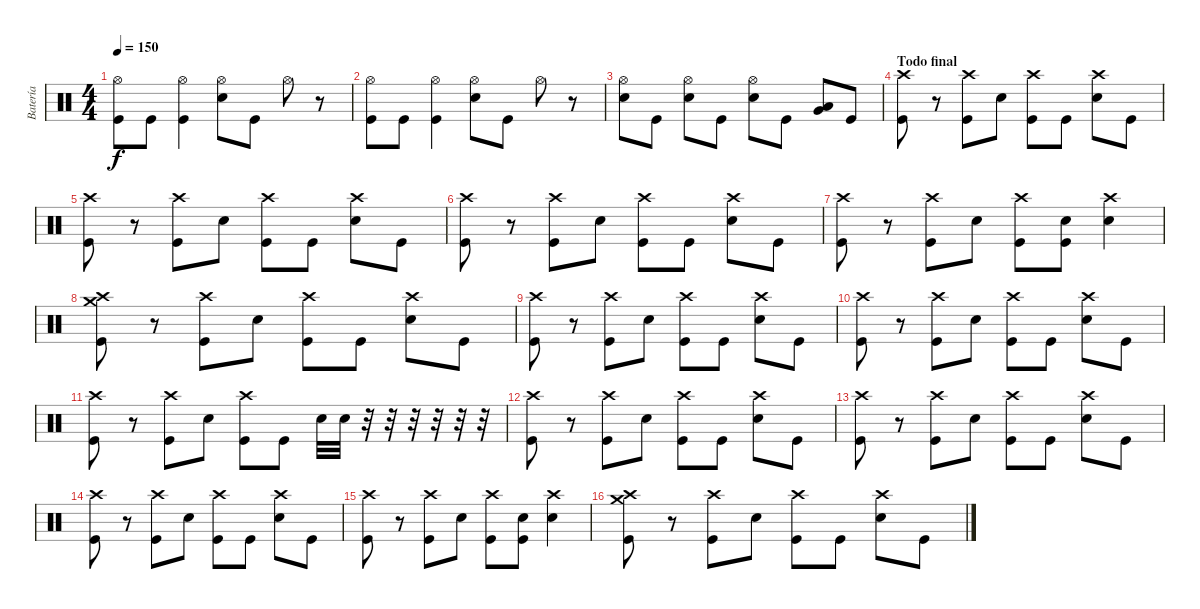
\track ("Batería" "Batería") {instrument percussion}
\staff {score}
\articulation defaults
\ts (4 4)
\tempo 150
\clef neutral
\ks c
("Hi-Hat (open)" "Kick (hit)").8{dy f} "Kick (hit)".8 ("Hi-Hat (open)" "Kick (hit)").4 ("Hi-Hat (open)" "Snare (hit) 2").8 "Kick (hit)".8 "Hi-Hat (open)".8 r.8 |
("Hi-Hat (open)" "Kick (hit)").8 "Kick (hit)".8 ("Hi-Hat (open)" "Kick (hit)").4 ("Hi-Hat (open)" "Snare (hit) 2").8 "Kick (hit)".8 "Hi-Hat (open)".8 r.8 |
("Hi-Hat (open)" "Snare (hit) 2").8 "Kick (hit)".8 ("Hi-Hat (open)" "Snare (hit) 2").8 "Kick (hit)".8 ("Hi-Hat (open)" "Snare (hit) 2").8 "Kick (hit)".8 ("Very Low Tom (hit)" "Low Tom (hit)").8 "Kick (hit)".8 |
\section ("" "Todo final")
("Crash high (hit)" "Kick (hit)").8 r.8 ("Crash high (hit)" "Kick (hit)").8 "Snare (hit) 2".8 ("Crash high (hit)" "Kick (hit)").8 "Kick (hit)".8 ("Crash high (hit)" "Snare (hit) 2").8 "Kick (hit)".8 |
("Crash high (hit)" "Kick (hit)").8 r.8 ("Crash high (hit)" "Kick (hit)").8 "Snare (hit) 2".8 ("Crash high (hit)" "Kick (hit)").8 "Kick (hit)".8 ("Crash high (hit)" "Snare (hit) 2").8 "Kick (hit)".8 |
("Crash high (hit)" "Kick (hit)").8 r.8 ("Crash high (hit)" "Kick (hit)").8 "Snare (hit) 2".8 ("Crash high (hit)" "Kick (hit)").8 "Kick (hit)".8 ("Crash high (hit)" "Snare (hit) 2").8 "Kick (hit)".8 |
("Crash high (hit)" "Kick (hit)").8 r.8 ("Crash high (hit)" "Kick (hit)").8 "Snare (hit) 2".8 ("Crash high (hit)" "Kick (hit)").8 ("Snare (hit) 2" "Kick (hit)").8 ("Crash high (hit)" "Snare (hit) 2").4 |
("Crash high (hit)" "Crash medium (hit)" "Kick (hit)").8 r.8 ("Crash high (hit)" "Kick (hit)").8 "Snare (hit) 2".8 ("Crash high (hit)" "Kick (hit)").8 "Kick (hit)".8 ("Crash high (hit)" "Snare (hit) 2").8 "Kick (hit)".8 |
("Crash high (hit)" "Kick (hit)").8 r.8 ("Crash high (hit)" "Kick (hit)").8 "Snare (hit) 2".8 ("Crash high (hit)" "Kick (hit)").8 "Kick (hit)".8 ("Crash high (hit)" "Snare (hit) 2").8 "Kick (hit)".8 |
("Crash high (hit)" "Kick (hit)").8 r.8 ("Crash high (hit)" "Kick (hit)").8 "Snare (hit) 2".8 ("Crash high (hit)" "Kick (hit)").8 "Kick (hit)".8 ("Crash high (hit)" "Snare (hit) 2").8 "Kick (hit)".8 |
("Crash high (hit)" "Kick (hit)").8 r.8 ("Crash high (hit)" "Kick (hit)").8 "Snare (hit) 2".8 ("Crash high (hit)" "Kick (hit)").8 "Kick (hit)".8 "Snare (hit) 2".32 "Snare (hit) 2".32 r.32 r.32 r.32 r.32 r.32 r.32 |
("Crash high (hit)" "Kick (hit)").8 r.8 ("Crash high (hit)" "Kick (hit)").8 "Snare (hit) 2".8 ("Crash high (hit)" "Kick (hit)").8 "Kick (hit)".8 ("Crash high (hit)" "Snare (hit) 2").8 "Kick (hit)".8 |
("Crash high (hit)" "Kick (hit)").8 r.8 ("Crash high (hit)" "Kick (hit)").8 "Snare (hit) 2".8 ("Crash high (hit)" "Kick (hit)").8 "Kick (hit)".8 ("Crash high (hit)" "Snare (hit) 2").8 "Kick (hit)".8 |
("Crash high (hit)" "Kick (hit)").8 r.8 ("Crash high (hit)" "Kick (hit)").8 "Snare (hit) 2".8 ("Crash high (hit)" "Kick (hit)").8 "Kick (hit)".8 ("Crash high (hit)" "Snare (hit) 2").8 "Kick (hit)".8 |
("Crash high (hit)" "Kick (hit)").8 r.8 ("Crash high (hit)" "Kick (hit)").8 "Snare (hit) 2".8 ("Crash high (hit)" "Kick (hit)").8 ("Snare (hit) 2" "Kick (hit)").8 ("Crash high (hit)" "Snare (hit) 2").4 |
("Crash high (hit)" "Crash medium (hit)" "Kick (hit)").8 r.8 ("Crash high (hit)" "Kick (hit)").8 "Snare (hit) 2".8 ("Crash high (hit)" "Kick (hit)").8 "Kick (hit)".8 ("Crash high (hit)" "Snare (hit) 2").8 "Kick (hit)".8
